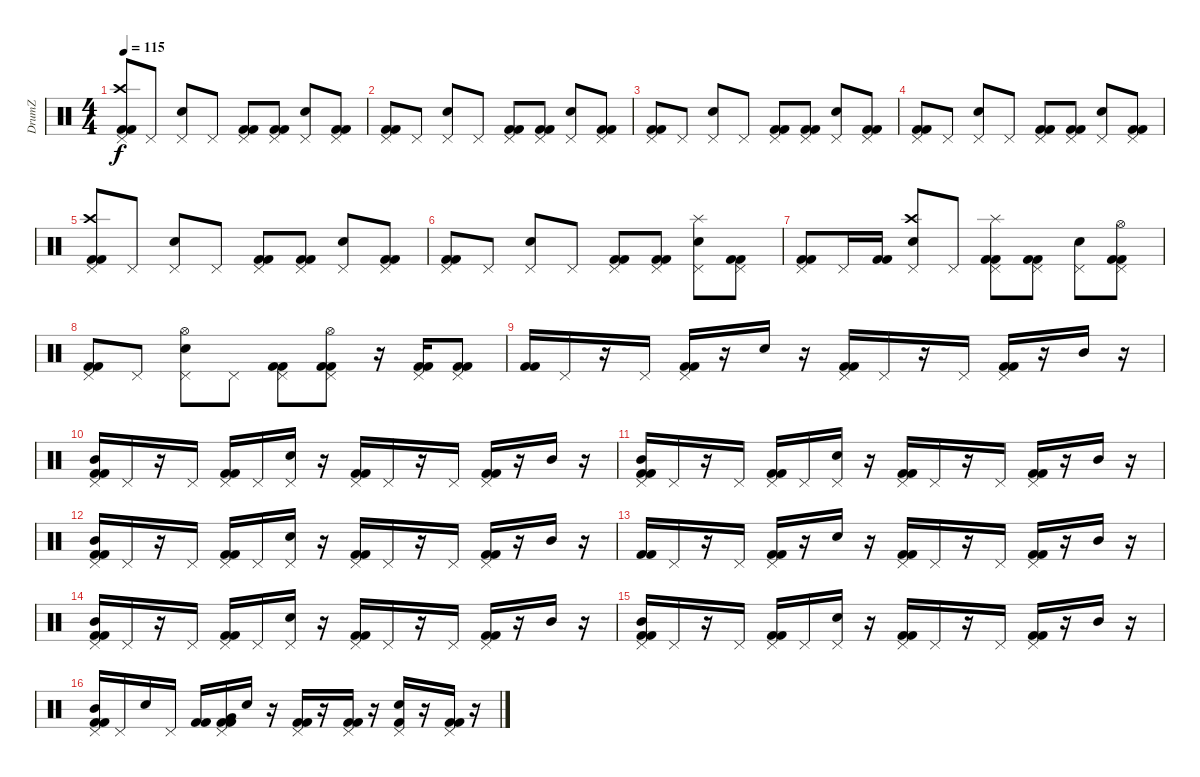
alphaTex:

\track ("DrumZ" "DrumZ") {instrument percussion}
\staff {score}
\articulation defaults
\ts (4 4)
\tempo 115
\clef neutral
\ks c
("Pedal Hi-Hat (hit)" "Crash high (hit)" "Kick (hit) 2" "Kick (hit) 2").8{dy f} "Pedal Hi-Hat (hit)".8 ("Pedal Hi-Hat (hit)" "Electric Snare (hit)").8 "Pedal Hi-Hat (hit)".8 ("Pedal Hi-Hat (hit)" "Kick (hit) 2" "Kick (hit) 2").8 ("Pedal Hi-Hat (hit)" "Kick (hit) 2" "Kick (hit) 2").8 ("Pedal Hi-Hat (hit)" "Electric Snare (hit)").8 ("Pedal Hi-Hat (hit)" "Kick (hit) 2" "Kick (hit) 2").8 |
("Pedal Hi-Hat (hit)" "Kick (hit) 2" "Kick (hit) 2").8 "Pedal Hi-Hat (hit)".8 ("Pedal Hi-Hat (hit)" "Electric Snare (hit)").8 "Pedal Hi-Hat (hit)".8 ("Pedal Hi-Hat (hit)" "Kick (hit) 2" "Kick (hit) 2").8 ("Pedal Hi-Hat (hit)" "Kick (hit) 2" "Kick (hit) 2").8 ("Pedal Hi-Hat (hit)" "Electric Snare (hit)").8 ("Pedal Hi-Hat (hit)" "Kick (hit) 2" "Kick (hit) 2").8 |
("Pedal Hi-Hat (hit)" "Kick (hit) 2" "Kick (hit) 2").8 "Pedal Hi-Hat (hit)".8 ("Pedal Hi-Hat (hit)" "Electric Snare (hit)").8 "Pedal Hi-Hat (hit)".8 ("Pedal Hi-Hat (hit)" "Kick (hit) 2" "Kick (hit) 2").8 ("Pedal Hi-Hat (hit)" "Kick (hit) 2" "Kick (hit) 2").8 ("Pedal Hi-Hat (hit)" "Electric Snare (hit)").8 ("Pedal Hi-Hat (hit)" "Kick (hit) 2" "Kick (hit) 2").8 |
("Pedal Hi-Hat (hit)" "Kick (hit) 2" "Kick (hit) 2").8 "Pedal Hi-Hat (hit)".8 ("Pedal Hi-Hat (hit)" "Electric Snare (hit)").8 "Pedal Hi-Hat (hit)".8 ("Pedal Hi-Hat (hit)" "Kick (hit) 2" "Kick (hit) 2").8 ("Pedal Hi-Hat (hit)" "Kick (hit) 2" "Kick (hit) 2").8 ("Pedal Hi-Hat (hit)" "Electric Snare (hit)").8 ("Pedal Hi-Hat (hit)" "Kick (hit) 2" "Kick (hit) 2").8 |
("Pedal Hi-Hat (hit)" "Crash high (hit)" "Kick (hit) 2" "Kick (hit) 2").8 "Pedal Hi-Hat (hit)".8 ("Pedal Hi-Hat (hit)" "Electric Snare (hit)").8 "Pedal Hi-Hat (hit)".8 ("Pedal Hi-Hat (hit)" "Kick (hit) 2" "Kick (hit) 2").8 ("Pedal Hi-Hat (hit)" "Kick (hit) 2" "Kick (hit) 2").8 ("Pedal Hi-Hat (hit)" "Electric Snare (hit)").8 ("Pedal Hi-Hat (hit)" "Kick (hit) 2" "Kick (hit) 2").8 |
("Pedal Hi-Hat (hit)" "Kick (hit) 2" "Kick (hit) 2").8 "Pedal Hi-Hat (hit)".8 ("Pedal Hi-Hat (hit)" "Electric Snare (hit)").8 "Pedal Hi-Hat (hit)".8 ("Pedal Hi-Hat (hit)" "Kick (hit) 2" "Kick (hit) 2").8 ("Pedal Hi-Hat (hit)" "Kick (hit) 2" "Kick (hit) 2").8 ("Pedal Hi-Hat (hit)" "Electric Snare (hit)" "Splash (hit)").8 ("Pedal Hi-Hat (hit)" "Kick (hit) 2" "Kick (hit) 2").8 |
("Pedal Hi-Hat (hit)" "Kick (hit) 2" "Kick (hit) 2").8 "Pedal Hi-Hat (hit)".16 ("Kick (hit) 2" "Kick (hit) 2").16 ("Pedal Hi-Hat (hit)" "Electric Snare (hit)" "Crash high (hit)").8 "Pedal Hi-Hat (hit)".8 ("Pedal Hi-Hat (hit)" "Splash (hit)" "Kick (hit) 2" "Kick (hit) 2").8 ("Pedal Hi-Hat (hit)" "Kick (hit) 2" "Kick (hit) 2").8 ("Pedal Hi-Hat (hit)" "Electric Snare (hit)").8 ("Pedal Hi-Hat (hit)" "Hi-Hat (open)" "Kick (hit) 2" "Kick (hit) 2").8 |
("Pedal Hi-Hat (hit)" "Kick (hit) 2" "Kick (hit) 2").8 "Pedal Hi-Hat (hit)".8 ("Pedal Hi-Hat (hit)" "Electric Snare (hit)" "Hi-Hat (open)").8 "Pedal Hi-Hat (hit)".8 ("Pedal Hi-Hat (hit)" "Kick (hit) 2" "Kick (hit) 2").8 ("Pedal Hi-Hat (hit)" "Hi-Hat (open)" "Kick (hit) 2" "Kick (hit) 2").8 r.16 ("Pedal Hi-Hat (hit)" "Kick (hit) 2" "Kick (hit) 2").16 ("Pedal Hi-Hat (hit)" "Kick (hit) 2" "Kick (hit) 2").8 |
("Kick (hit) 2" "Kick (hit) 2").16 "Pedal Hi-Hat (hit)".16 r.16 "Pedal Hi-Hat (hit)".16 ("Pedal Hi-Hat (hit)" "Kick (hit) 2" "Kick (hit) 2").16 r.16 "Electric Snare (hit)".16 r.16 ("Pedal Hi-Hat (hit)" "Kick (hit) 2" "Kick (hit) 2").16 "Pedal Hi-Hat (hit)".16 r.16 "Pedal Hi-Hat (hit)".16 ("Pedal Hi-Hat (hit)" "Kick (hit) 2" "Kick (hit) 2").16 r.16 "Mid Tom (hit)".16 r.16 |
("Pedal Hi-Hat (hit)" "Mid Tom (hit)" "Kick (hit) 2" "Kick (hit) 2").16 "Pedal Hi-Hat (hit)".16 r.16 "Pedal Hi-Hat (hit)".16 ("Pedal Hi-Hat (hit)" "Kick (hit) 2" "Kick (hit) 2").16 "Pedal Hi-Hat (hit)".16 ("Pedal Hi-Hat (hit)" "Electric Snare (hit)").16 r.16 ("Pedal Hi-Hat (hit)" "Kick (hit) 2" "Kick (hit) 2").16 "Pedal Hi-Hat (hit)".16 r.16 "Pedal Hi-Hat (hit)".16 ("Pedal Hi-Hat (hit)" "Kick (hit) 2" "Kick (hit) 2").16 r.16 "Mid Tom (hit)".16 r.16 |
("Pedal Hi-Hat (hit)" "Mid Tom (hit)" "Kick (hit) 2" "Kick (hit) 2").16 "Pedal Hi-Hat (hit)".16 r.16 "Pedal Hi-Hat (hit)".16 ("Pedal Hi-Hat (hit)" "Kick (hit) 2" "Kick (hit) 2").16 "Pedal Hi-Hat (hit)".16 ("Pedal Hi-Hat (hit)" "Electric Snare (hit)").16 r.16 ("Pedal Hi-Hat (hit)" "Kick (hit) 2" "Kick (hit) 2").16 "Pedal Hi-Hat (hit)".16 r.16 "Pedal Hi-Hat (hit)".16 ("Pedal Hi-Hat (hit)" "Kick (hit) 2" "Kick (hit) 2").16 r.16 "Mid Tom (hit)".16 r.16 |
("Pedal Hi-Hat (hit)" "Mid Tom (hit)" "Kick (hit) 2" "Kick (hit) 2").16 "Pedal Hi-Hat (hit)".16 r.16 "Pedal Hi-Hat (hit)".16 ("Pedal Hi-Hat (hit)" "Kick (hit) 2" "Kick (hit) 2").16 "Pedal Hi-Hat (hit)".16 ("Pedal Hi-Hat (hit)" "Electric Snare (hit)").16 r.16 ("Pedal Hi-Hat (hit)" "Kick (hit) 2" "Kick (hit) 2").16 "Pedal Hi-Hat (hit)".16 r.16 "Pedal Hi-Hat (hit)".16 ("Pedal Hi-Hat (hit)" "Kick (hit) 2" "Kick (hit) 2").16 r.16 "Mid Tom (hit)".16 r.16 |
("Kick (hit) 2" "Kick (hit) 2").16 "Pedal Hi-Hat (hit)".16 r.16 "Pedal Hi-Hat (hit)".16 ("Pedal Hi-Hat (hit)" "Kick (hit) 2" "Kick (hit) 2").16 r.16 "Electric Snare (hit)".16 r.16 ("Pedal Hi-Hat (hit)" "Kick (hit) 2" "Kick (hit) 2").16 "Pedal Hi-Hat (hit)".16 r.16 "Pedal Hi-Hat (hit)".16 ("Pedal Hi-Hat (hit)" "Kick (hit) 2" "Kick (hit) 2").16 r.16 "Mid Tom (hit)".16 r.16 |
("Pedal Hi-Hat (hit)" "Mid Tom (hit)" "Kick (hit) 2" "Kick (hit) 2").16 "Pedal Hi-Hat (hit)".16 r.16 "Pedal Hi-Hat (hit)".16 ("Pedal Hi-Hat (hit)" "Kick (hit) 2" "Kick (hit) 2").16 "Pedal Hi-Hat (hit)".16 ("Pedal Hi-Hat (hit)" "Electric Snare (hit)").16 r.16 ("Pedal Hi-Hat (hit)" "Kick (hit) 2" "Kick (hit) 2").16 "Pedal Hi-Hat (hit)".16 r.16 "Pedal Hi-Hat (hit)".16 ("Pedal Hi-Hat (hit)" "Kick (hit) 2" "Kick (hit) 2").16 r.16 "Mid Tom (hit)".16 r.16 |
("Pedal Hi-Hat (hit)" "Mid Tom (hit)" "Kick (hit) 2" "Kick (hit) 2").16 "Pedal Hi-Hat (hit)".16 r.16 "Pedal Hi-Hat (hit)".16 ("Pedal Hi-Hat (hit)" "Kick (hit) 2" "Kick (hit) 2").16 "Pedal Hi-Hat (hit)".16 ("Pedal Hi-Hat (hit)" "Electric Snare (hit)").16 r.16 ("Pedal Hi-Hat (hit)" "Kick (hit) 2" "Kick (hit) 2").16 "Pedal Hi-Hat (hit)".16 r.16 "Pedal Hi-Hat (hit)".16 ("Pedal Hi-Hat (hit)" "Kick (hit) 2" "Kick (hit) 2").16 r.16 "Mid Tom (hit)".16 r.16 |
("Pedal Hi-Hat (hit)" "Mid Tom (hit)" "Kick (hit) 2" "Kick (hit) 2").16 "Pedal Hi-Hat (hit)".16 "Electric Snare (hit)".16 "Pedal Hi-Hat (hit)".16 ("Kick (hit) 2" "Kick (hit) 2").16 ("Pedal Hi-Hat (hit)" "Kick (hit) 2" "Kick (hit) 2" "Very Low Tom (hit)").16 "Electric Snare (hit)".16 r.16 ("Pedal Hi-Hat (hit)" "Kick (hit) 2" "Kick (hit) 2").16 r.16 ("Pedal Hi-Hat (hit)" "Kick (hit) 2" "Kick (hit) 2").16 r.16 ("Pedal Hi-Hat (hit)" "Electric Snare (hit)" "Kick (hit) 2").16 r.16 ("Pedal Hi-Hat (hit)" "Kick (hit) 2" "Kick (hit) 2").16 r.16
